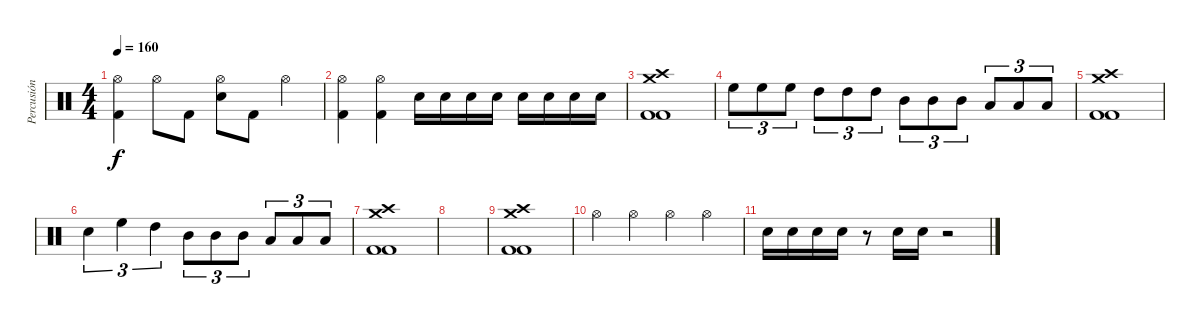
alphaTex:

\track ("Percusión" "Percusión") {instrument percussion}
\staff {score}
\articulation defaults
\ts (4 4)
\tempo 160
\clef neutral
\ks c
("Hi-Hat (open)" "Kick (hit) 2").4{dy f} "Hi-Hat (open)".8 "Kick (hit) 2".8 ("Hi-Hat (open)" "Snare (hit) 2").8 "Kick (hit) 2".8 "Hi-Hat (open)".4 |
("Hi-Hat (open)" "Kick (hit) 2").4 ("Hi-Hat (open)" "Kick (hit) 2").4 "Snare (hit) 2".16 "Snare (hit) 2".16 "Snare (hit) 2".16 "Snare (hit) 2".16 "Snare (hit) 2".16 "Snare (hit) 2".16 "Snare (hit) 2".16 "Snare (hit) 2".16 |
("Crash high (hit)" "Crash medium (hit)" "Kick (hit) 2" "Kick (hit) 2").1 |
"High Floor Tom (hit)".8{tu (3 2)} "High Floor Tom (hit)".8{tu (3 2)} "High Floor Tom (hit)".8{tu (3 2)} "High Tom (hit)".8{tu (3 2)} "High Tom (hit)".8{tu (3 2)} "High Tom (hit)".8{tu (3 2)} "Mid Tom (hit)".8{tu (3 2)} "Mid Tom (hit)".8{tu (3 2)} "Mid Tom (hit)".8{tu (3 2)} "Low Tom (hit)".8{tu (3 2)} "Low Tom (hit)".8{tu (3 2)} "Low Tom (hit)".8{tu (3 2)} |
("Crash high (hit)" "Crash medium (hit)" "Kick (hit) 2" "Kick (hit) 2").1 |
"Snare (hit) 2".4{tu (3 2)} "High Floor Tom (hit)".4{tu (3 2)} "High Tom (hit)".4{tu (3 2)} "Mid Tom (hit)".8{tu (3 2)} "Mid Tom (hit)".8{tu (3 2)} "Mid Tom (hit)".8{tu (3 2)} "Low Tom (hit)".8{tu (3 2)} "Low Tom (hit)".8{tu (3 2)} "Low Tom (hit)".8{tu (3 2)} |
("Crash high (hit)" "Crash medium (hit)" "Kick (hit) 2" "Kick (hit) 2").1 |
|
("Crash high (hit)" "Crash medium (hit)" "Kick (hit) 2" "Kick (hit) 2").1 |
"Hi-Hat (open)".4 "Hi-Hat (open)".4 "Hi-Hat (open)".4 "Hi-Hat (open)".4 |
"Snare (hit) 2".16 "Snare (hit) 2".16 "Snare (hit) 2".16 "Snare (hit) 2".16 r.8 "Snare (hit) 2".16 "Snare (hit) 2".16 r.2
